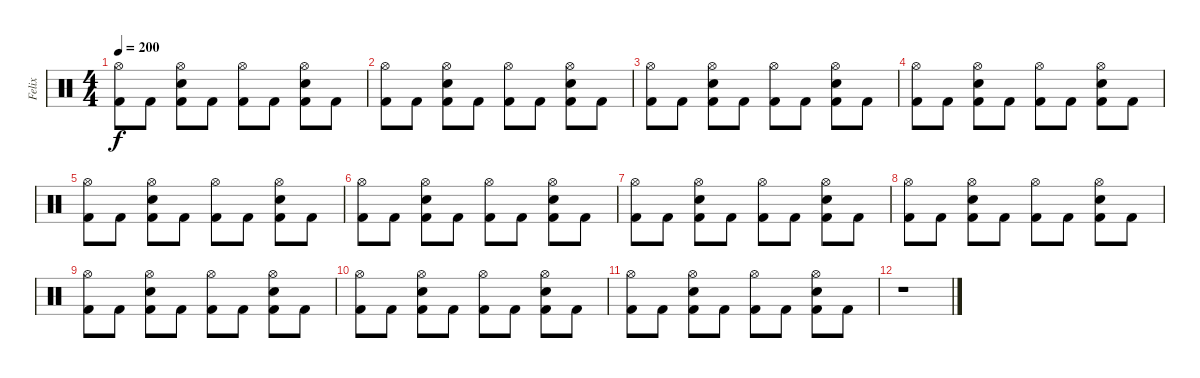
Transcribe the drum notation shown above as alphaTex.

\track ("Felix" "Felix") {instrument percussion}
\staff {score}
\articulation defaults
\ts (4 4)
\tempo 200
\clef neutral
\ks c
("Hi-Hat (open)" "Kick (hit) 2").8{dy f} "Kick (hit) 2".8 ("Hi-Hat (open)" "Electric Snare (hit)" "Kick (hit) 2").8 "Kick (hit) 2".8 ("Hi-Hat (open)" "Kick (hit) 2").8 "Kick (hit) 2".8 ("Hi-Hat (open)" "Electric Snare (hit)" "Kick (hit) 2").8 "Kick (hit) 2".8 |
("Hi-Hat (open)" "Kick (hit) 2").8 "Kick (hit) 2".8 ("Hi-Hat (open)" "Electric Snare (hit)" "Kick (hit) 2").8 "Kick (hit) 2".8 ("Hi-Hat (open)" "Kick (hit) 2").8 "Kick (hit) 2".8 ("Hi-Hat (open)" "Electric Snare (hit)" "Kick (hit) 2").8 "Kick (hit) 2".8 |
("Hi-Hat (open)" "Kick (hit) 2").8 "Kick (hit) 2".8 ("Hi-Hat (open)" "Electric Snare (hit)" "Kick (hit) 2").8 "Kick (hit) 2".8 ("Hi-Hat (open)" "Kick (hit) 2").8 "Kick (hit) 2".8 ("Hi-Hat (open)" "Electric Snare (hit)" "Kick (hit) 2").8 "Kick (hit) 2".8 |
("Hi-Hat (open)" "Kick (hit) 2").8 "Kick (hit) 2".8 ("Hi-Hat (open)" "Electric Snare (hit)" "Kick (hit) 2").8 "Kick (hit) 2".8 ("Hi-Hat (open)" "Kick (hit) 2").8 "Kick (hit) 2".8 ("Hi-Hat (open)" "Electric Snare (hit)" "Kick (hit) 2").8 "Kick (hit) 2".8 |
("Hi-Hat (open)" "Kick (hit) 2").8 "Kick (hit) 2".8 ("Hi-Hat (open)" "Electric Snare (hit)" "Kick (hit) 2").8 "Kick (hit) 2".8 ("Hi-Hat (open)" "Kick (hit) 2").8 "Kick (hit) 2".8 ("Hi-Hat (open)" "Electric Snare (hit)" "Kick (hit) 2").8 "Kick (hit) 2".8 |
("Hi-Hat (open)" "Kick (hit) 2").8 "Kick (hit) 2".8 ("Hi-Hat (open)" "Electric Snare (hit)" "Kick (hit) 2").8 "Kick (hit) 2".8 ("Hi-Hat (open)" "Kick (hit) 2").8 "Kick (hit) 2".8 ("Hi-Hat (open)" "Electric Snare (hit)" "Kick (hit) 2").8 "Kick (hit) 2".8 |
("Hi-Hat (open)" "Kick (hit) 2").8 "Kick (hit) 2".8 ("Hi-Hat (open)" "Electric Snare (hit)" "Kick (hit) 2").8 "Kick (hit) 2".8 ("Hi-Hat (open)" "Kick (hit) 2").8 "Kick (hit) 2".8 ("Hi-Hat (open)" "Electric Snare (hit)" "Kick (hit) 2").8 "Kick (hit) 2".8 |
("Hi-Hat (open)" "Kick (hit) 2").8 "Kick (hit) 2".8 ("Hi-Hat (open)" "Electric Snare (hit)" "Kick (hit) 2").8 "Kick (hit) 2".8 ("Hi-Hat (open)" "Kick (hit) 2").8 "Kick (hit) 2".8 ("Hi-Hat (open)" "Electric Snare (hit)" "Kick (hit) 2").8 "Kick (hit) 2".8 |
("Hi-Hat (open)" "Kick (hit) 2").8 "Kick (hit) 2".8 ("Hi-Hat (open)" "Electric Snare (hit)" "Kick (hit) 2").8 "Kick (hit) 2".8 ("Hi-Hat (open)" "Kick (hit) 2").8 "Kick (hit) 2".8 ("Hi-Hat (open)" "Electric Snare (hit)" "Kick (hit) 2").8 "Kick (hit) 2".8 |
("Hi-Hat (open)" "Kick (hit) 2").8 "Kick (hit) 2".8 ("Hi-Hat (open)" "Electric Snare (hit)" "Kick (hit) 2").8 "Kick (hit) 2".8 ("Hi-Hat (open)" "Kick (hit) 2").8 "Kick (hit) 2".8 ("Hi-Hat (open)" "Electric Snare (hit)" "Kick (hit) 2").8 "Kick (hit) 2".8 |
("Hi-Hat (open)" "Kick (hit) 2").8 "Kick (hit) 2".8 ("Hi-Hat (open)" "Electric Snare (hit)" "Kick (hit) 2").8 "Kick (hit) 2".8 ("Hi-Hat (open)" "Kick (hit) 2").8 "Kick (hit) 2".8 ("Hi-Hat (open)" "Electric Snare (hit)" "Kick (hit) 2").8 "Kick (hit) 2".8 |
r.1
